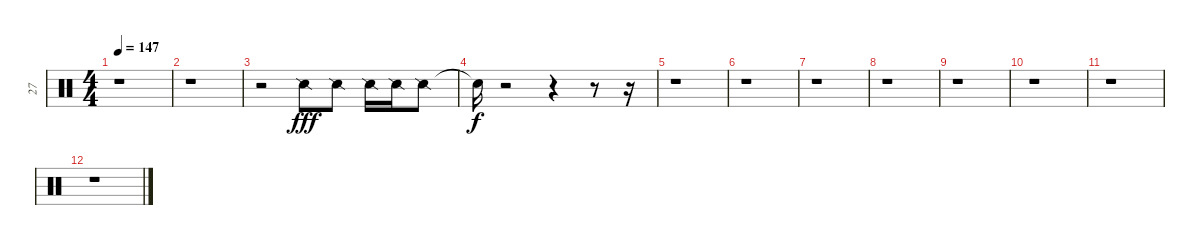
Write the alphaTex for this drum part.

\track ("27" "27") {instrument percussion}
\staff {score}
\articulation defaults
\ts (4 4)
\tempo 147
\clef neutral
\ks c
r.1{dy f} |
r.1 |
r.2 "Snare (side stick) 2".8{dy fff} "Snare (side stick) 2".8 "Snare (side stick) 2".16 "Snare (side stick) 2".16 "Snare (side stick) 2".8 |
"Snare (hit)"{t}.16{dy f} r.2 r.4 r.8 r.16 |
r.1 |
r.1 |
r.1 |
r.1 |
r.1 |
r.1 |
r.1 |
r.1
